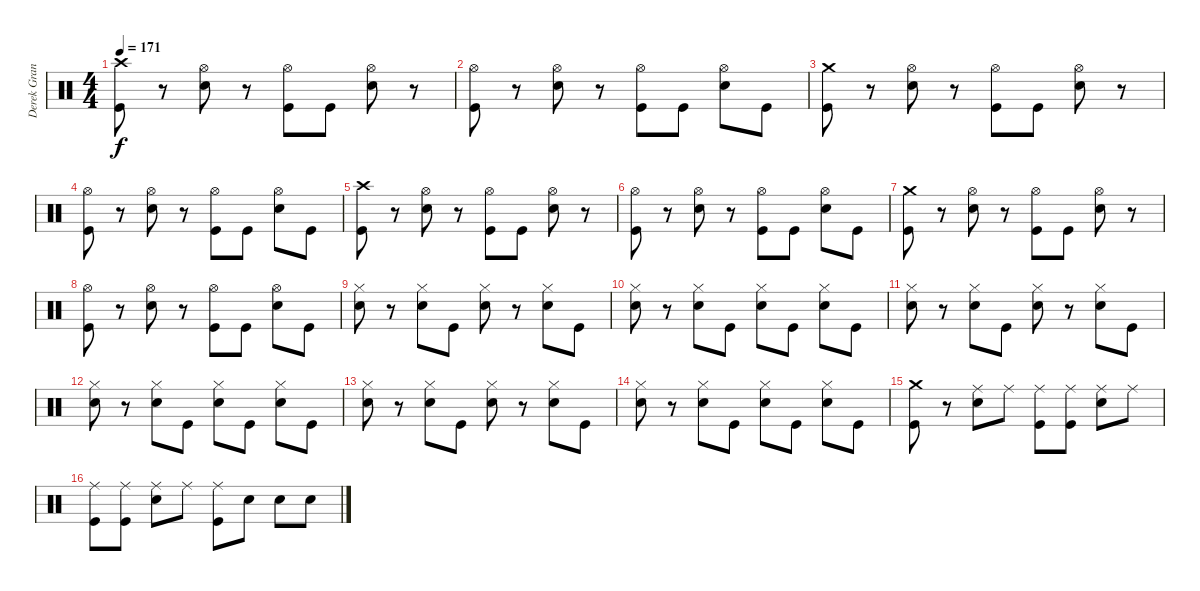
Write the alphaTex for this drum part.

\track ("Derek Grant" "Derek Gran") {instrument percussion}
\staff {score}
\articulation defaults
\ts (4 4)
\tempo 171
\clef neutral
\ks c
("Crash high (hit)" "Kick (hit)").8{dy f} r.8 ("Hi-Hat (open)" "Electric Snare (hit)").8 r.8 ("Hi-Hat (open)" "Kick (hit)").8 "Kick (hit)".8 ("Hi-Hat (open)" "Electric Snare (hit)").8 r.8 |
("Hi-Hat (open)" "Kick (hit)").8 r.8 ("Hi-Hat (open)" "Electric Snare (hit)").8 r.8 ("Hi-Hat (open)" "Kick (hit)").8 "Kick (hit)".8 ("Hi-Hat (open)" "Electric Snare (hit)").8 "Kick (hit)".8 |
("Crash medium (hit)" "Kick (hit)").8 r.8 ("Hi-Hat (open)" "Electric Snare (hit)").8 r.8 ("Hi-Hat (open)" "Kick (hit)").8 "Kick (hit)".8 ("Hi-Hat (open)" "Electric Snare (hit)").8 r.8 |
("Hi-Hat (open)" "Kick (hit)").8 r.8 ("Hi-Hat (open)" "Electric Snare (hit)").8 r.8 ("Hi-Hat (open)" "Kick (hit)").8 "Kick (hit)".8 ("Hi-Hat (open)" "Electric Snare (hit)").8 "Kick (hit)".8 |
("Crash high (hit)" "Kick (hit)").8 r.8 ("Hi-Hat (open)" "Electric Snare (hit)").8 r.8 ("Hi-Hat (open)" "Kick (hit)").8 "Kick (hit)".8 ("Hi-Hat (open)" "Electric Snare (hit)").8 r.8 |
("Hi-Hat (open)" "Kick (hit)").8 r.8 ("Hi-Hat (open)" "Electric Snare (hit)").8 r.8 ("Hi-Hat (open)" "Kick (hit)").8 "Kick (hit)".8 ("Hi-Hat (open)" "Electric Snare (hit)").8 "Kick (hit)".8 |
("Crash medium (hit)" "Kick (hit)").8 r.8 ("Hi-Hat (open)" "Electric Snare (hit)").8 r.8 ("Hi-Hat (open)" "Kick (hit)").8 "Kick (hit)".8 ("Hi-Hat (open)" "Electric Snare (hit)").8 r.8 |
("Hi-Hat (open)" "Kick (hit)").8 r.8 ("Hi-Hat (open)" "Electric Snare (hit)").8 r.8 ("Hi-Hat (open)" "Kick (hit)").8 "Kick (hit)".8 ("Hi-Hat (open)" "Electric Snare (hit)").8 "Kick (hit)".8 |
("Hi-Hat (closed)" "Electric Snare (hit)").8 r.8 ("Hi-Hat (closed)" "Electric Snare (hit)").8 "Kick (hit)".8 ("Hi-Hat (closed)" "Electric Snare (hit)").8 r.8 ("Hi-Hat (closed)" "Electric Snare (hit)").8 "Kick (hit)".8 |
("Hi-Hat (closed)" "Electric Snare (hit)").8 r.8 ("Hi-Hat (closed)" "Electric Snare (hit)").8 "Kick (hit)".8 ("Hi-Hat (closed)" "Electric Snare (hit)").8 "Kick (hit)".8 ("Hi-Hat (closed)" "Electric Snare (hit)").8 "Kick (hit)".8 |
("Hi-Hat (closed)" "Electric Snare (hit)").8 r.8 ("Hi-Hat (closed)" "Electric Snare (hit)").8 "Kick (hit)".8 ("Hi-Hat (closed)" "Electric Snare (hit)").8 r.8 ("Hi-Hat (closed)" "Electric Snare (hit)").8 "Kick (hit)".8 |
("Hi-Hat (closed)" "Electric Snare (hit)").8 r.8 ("Hi-Hat (closed)" "Electric Snare (hit)").8 "Kick (hit)".8 ("Hi-Hat (closed)" "Electric Snare (hit)").8 "Kick (hit)".8 ("Hi-Hat (closed)" "Electric Snare (hit)").8 "Kick (hit)".8 |
("Hi-Hat (closed)" "Electric Snare (hit)").8 r.8 ("Hi-Hat (closed)" "Electric Snare (hit)").8 "Kick (hit)".8 ("Hi-Hat (closed)" "Electric Snare (hit)").8 r.8 ("Hi-Hat (closed)" "Electric Snare (hit)").8 "Kick (hit)".8 |
("Hi-Hat (closed)" "Electric Snare (hit)").8 r.8 ("Hi-Hat (closed)" "Electric Snare (hit)").8 "Kick (hit)".8 ("Hi-Hat (closed)" "Electric Snare (hit)").8 "Kick (hit)".8 ("Hi-Hat (closed)" "Electric Snare (hit)").8 "Kick (hit)".8 |
("Crash medium (hit)" "Kick (hit)").8 r.8 ("Ride (middle)" "Electric Snare (hit)").8 "Ride (middle)".8 ("Ride (middle)" "Kick (hit)").8 ("Ride (middle)" "Kick (hit)").8 ("Ride (middle)" "Electric Snare (hit)").8 "Ride (middle)".8 |
("Ride (middle)" "Kick (hit)").8 ("Ride (middle)" "Kick (hit)").8 ("Ride (middle)" "Electric Snare (hit)").8 "Ride (middle)".8 ("Ride (middle)" "Kick (hit)").8 "Electric Snare (hit)".8 "Electric Snare (hit)".8 "Electric Snare (hit)".8
